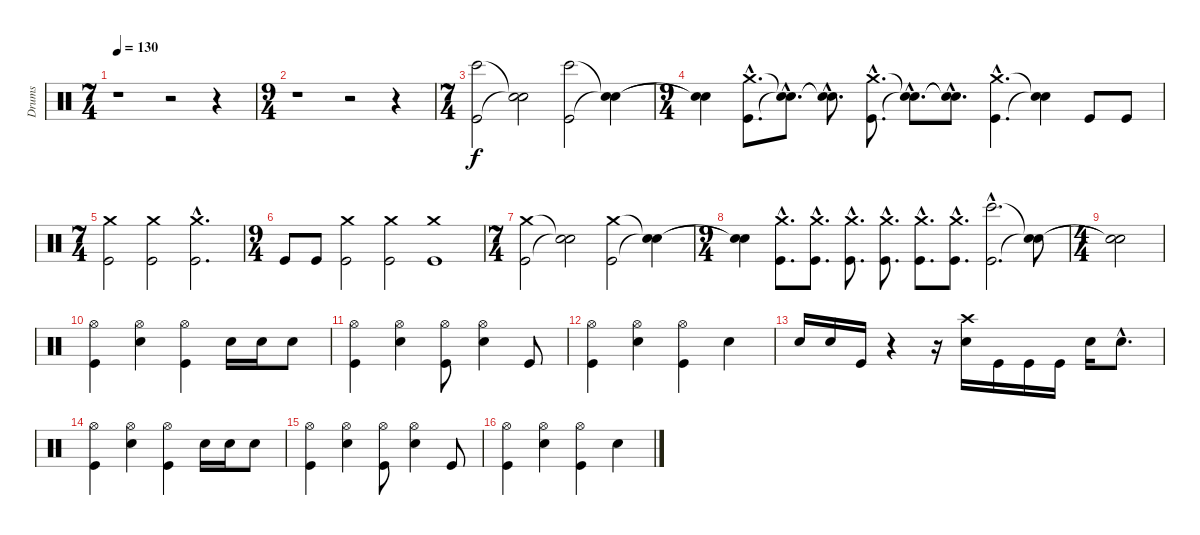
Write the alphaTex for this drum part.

\track ("Drums" "Drums") {instrument percussion}
\staff {score}
\articulation defaults
\ts (7 4)
\tempo 130
\clef neutral
\ks c
r.1{dy f} r.2 r.4 |
\ts (9 4)
r.1 r.2 r.4 |
\ts (7 4)
("Bongo High (hit)" "Kick (hit)").2 ("Snare (hit)"{t} "Snare (hit)"{t}).2 ("Bongo High (hit)" "Kick (hit)").2 ("Snare (hit)"{t} "Snare (hit)"{t}).4 |
\ts (9 4)
("Snare (hit)"{t} "Snare (hit)"{t}).4 ("Crash medium (hit)"{hac} "Kick (hit)"{hac}).8{d} ("Snare (hit)"{hac t} "Snare (hit)"{hac t}).8{d} ("Snare (hit)"{hac t} "Snare (hit)"{hac t}).8{d} ("Crash medium (hit)"{hac} "Kick (hit)"{hac}).8{d} ("Snare (hit)"{hac t} "Snare (hit)"{hac t}).8{d} ("Snare (hit)"{hac t} "Snare (hit)"{hac t}).8{d} ("Crash medium (hit)"{hac} "Kick (hit)"{hac}).4{d} ("Snare (hit)"{t} "Snare (hit)"{t}).4 "Kick (hit)".8 "Kick (hit)".8 |
\ts (7 4)
("Crash medium (hit)" "Kick (hit)").2 ("Crash medium (hit)" "Kick (hit)").2 ("Crash medium (hit)"{hac} "Kick (hit)"{hac}).2{d} |
\ts (9 4)
"Kick (hit)".8 "Kick (hit)".8 ("Crash medium (hit)" "Kick (hit)").2 ("Crash medium (hit)" "Kick (hit)").2 ("Crash medium (hit)" "Kick (hit)").1 |
\ts (7 4)
("Crash medium (hit)" "Kick (hit)").2 ("Snare (hit)"{t} "Snare (hit)"{t}).2 ("Crash medium (hit)" "Kick (hit)").2 ("Snare (hit)"{t} "Snare (hit)"{t}).4 |
\ts (9 4)
("Snare (hit)"{t} "Snare (hit)"{t}).4 ("Crash medium (hit)"{hac} "Kick (hit)"{hac}).8{d} ("Crash medium (hit)"{hac} "Kick (hit)"{hac}).8{d} ("Crash medium (hit)"{hac} "Kick (hit)"{hac}).8{d} ("Crash medium (hit)"{hac} "Kick (hit)"{hac}).8{d} ("Crash medium (hit)"{hac} "Kick (hit)"{hac}).8{d} ("Crash medium (hit)"{hac} "Kick (hit)"{hac}).8{d} ("Bongo High (hit)"{hac} "Kick (hit)"{hac}).2{d} ("Snare (hit)"{t} "Snare (hit)"{t}).8 |
\ts (4 4)
("Snare (hit)"{t} "Snare (hit)"{t}).2 |
("Kick (hit)" "Hi-Hat (open)").4 ("Snare (hit) 2" "Hi-Hat (open)").4 ("Kick (hit)" "Hi-Hat (open)").4 "Snare (hit) 2".16 "Snare (hit) 2".16 "Snare (hit) 2".8 |
("Hi-Hat (open)" "Kick (hit)").4 ("Hi-Hat (open)" "Snare (hit) 2").4 ("Hi-Hat (open)" "Kick (hit)").8 ("Hi-Hat (open)" "Snare (hit) 2").4 "Kick (hit)".8 |
("Hi-Hat (open)" "Kick (hit)").4 ("Hi-Hat (open)" "Snare (hit) 2").4 ("Hi-Hat (open)" "Kick (hit)").4 "Snare (hit) 2".4 |
"Snare (hit) 2".16 "Snare (hit) 2".16 "Kick (hit)".16 r.4 r.16 ("Crash high (hit)" "Snare (hit) 2").16 "Kick (hit)".16 "Kick (hit)".16 "Kick (hit)".16 "Snare (hit) 2".16 "Snare (hit) 2"{hac}.8{d} |
("Kick (hit)" "Hi-Hat (open)").4 ("Snare (hit) 2" "Hi-Hat (open)").4 ("Kick (hit)" "Hi-Hat (open)").4 "Snare (hit) 2".16 "Snare (hit) 2".16 "Snare (hit) 2".8 |
("Hi-Hat (open)" "Kick (hit)").4 ("Hi-Hat (open)" "Snare (hit) 2").4 ("Hi-Hat (open)" "Kick (hit)").8 ("Hi-Hat (open)" "Snare (hit) 2").4 "Kick (hit)".8 |
("Hi-Hat (open)" "Kick (hit)").4 ("Hi-Hat (open)" "Snare (hit) 2").4 ("Hi-Hat (open)" "Kick (hit)").4 "Snare (hit) 2".4
